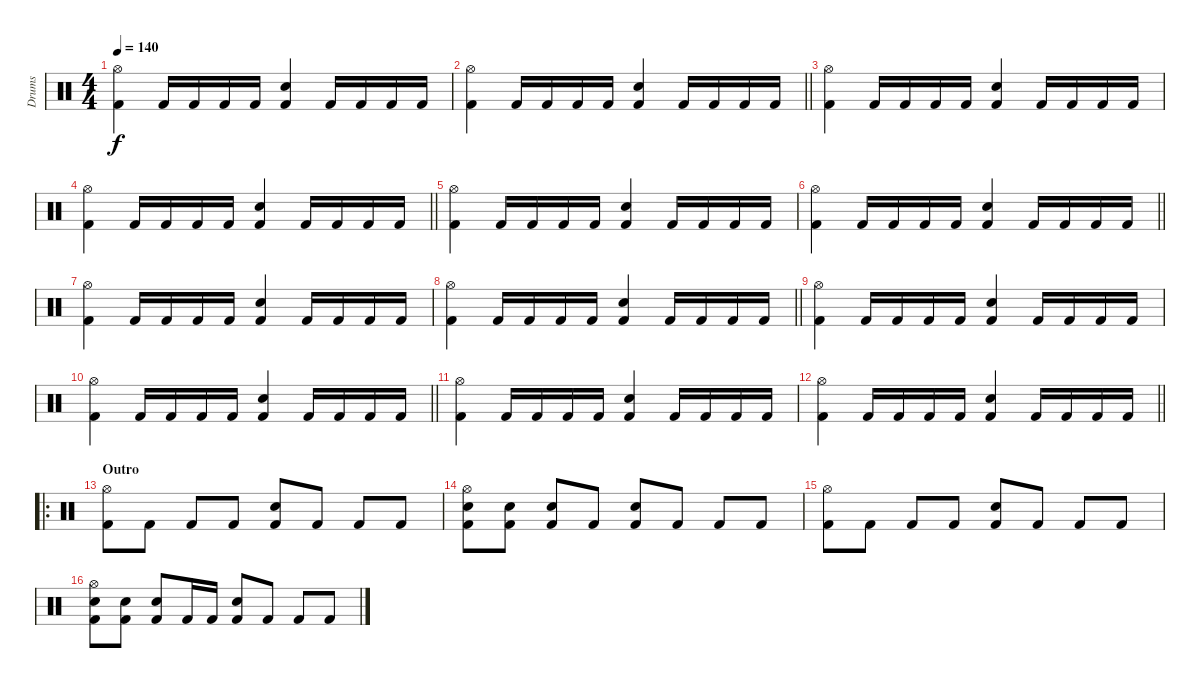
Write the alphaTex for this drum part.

\track ("Drums" "Drums") {instrument percussion}
\staff {score}
\articulation defaults
\ts (4 4)
\tempo 140
\clef neutral
\ks c
("Hi-Hat (open)" "Kick (hit) 2").4{dy f} "Kick (hit) 2".16 "Kick (hit) 2".16 "Kick (hit) 2".16 "Kick (hit) 2".16 ("Snare (hit) 2" "Kick (hit) 2").4 "Kick (hit) 2".16 "Kick (hit) 2".16 "Kick (hit) 2".16 "Kick (hit) 2".16 |
\barLineRight lightlight
("Hi-Hat (open)" "Kick (hit) 2").4 "Kick (hit) 2".16 "Kick (hit) 2".16 "Kick (hit) 2".16 "Kick (hit) 2".16 ("Snare (hit) 2" "Kick (hit) 2").4 "Kick (hit) 2".16 "Kick (hit) 2".16 "Kick (hit) 2".16 "Kick (hit) 2".16 |
("Hi-Hat (open)" "Kick (hit) 2").4 "Kick (hit) 2".16 "Kick (hit) 2".16 "Kick (hit) 2".16 "Kick (hit) 2".16 ("Snare (hit) 2" "Kick (hit) 2").4 "Kick (hit) 2".16 "Kick (hit) 2".16 "Kick (hit) 2".16 "Kick (hit) 2".16 |
\barLineRight lightlight
("Hi-Hat (open)" "Kick (hit) 2").4 "Kick (hit) 2".16 "Kick (hit) 2".16 "Kick (hit) 2".16 "Kick (hit) 2".16 ("Snare (hit) 2" "Kick (hit) 2").4 "Kick (hit) 2".16 "Kick (hit) 2".16 "Kick (hit) 2".16 "Kick (hit) 2".16 |
("Hi-Hat (open)" "Kick (hit) 2").4 "Kick (hit) 2".16 "Kick (hit) 2".16 "Kick (hit) 2".16 "Kick (hit) 2".16 ("Snare (hit) 2" "Kick (hit) 2").4 "Kick (hit) 2".16 "Kick (hit) 2".16 "Kick (hit) 2".16 "Kick (hit) 2".16 |
\barLineRight lightlight
("Hi-Hat (open)" "Kick (hit) 2").4 "Kick (hit) 2".16 "Kick (hit) 2".16 "Kick (hit) 2".16 "Kick (hit) 2".16 ("Snare (hit) 2" "Kick (hit) 2").4 "Kick (hit) 2".16 "Kick (hit) 2".16 "Kick (hit) 2".16 "Kick (hit) 2".16 |
("Hi-Hat (open)" "Kick (hit) 2").4 "Kick (hit) 2".16 "Kick (hit) 2".16 "Kick (hit) 2".16 "Kick (hit) 2".16 ("Snare (hit) 2" "Kick (hit) 2").4 "Kick (hit) 2".16 "Kick (hit) 2".16 "Kick (hit) 2".16 "Kick (hit) 2".16 |
\barLineRight lightlight
("Hi-Hat (open)" "Kick (hit) 2").4 "Kick (hit) 2".16 "Kick (hit) 2".16 "Kick (hit) 2".16 "Kick (hit) 2".16 ("Snare (hit) 2" "Kick (hit) 2").4 "Kick (hit) 2".16 "Kick (hit) 2".16 "Kick (hit) 2".16 "Kick (hit) 2".16 |
("Hi-Hat (open)" "Kick (hit) 2").4 "Kick (hit) 2".16 "Kick (hit) 2".16 "Kick (hit) 2".16 "Kick (hit) 2".16 ("Snare (hit) 2" "Kick (hit) 2").4 "Kick (hit) 2".16 "Kick (hit) 2".16 "Kick (hit) 2".16 "Kick (hit) 2".16 |
\barLineRight lightlight
("Hi-Hat (open)" "Kick (hit) 2").4 "Kick (hit) 2".16 "Kick (hit) 2".16 "Kick (hit) 2".16 "Kick (hit) 2".16 ("Snare (hit) 2" "Kick (hit) 2").4 "Kick (hit) 2".16 "Kick (hit) 2".16 "Kick (hit) 2".16 "Kick (hit) 2".16 |
("Hi-Hat (open)" "Kick (hit) 2").4 "Kick (hit) 2".16 "Kick (hit) 2".16 "Kick (hit) 2".16 "Kick (hit) 2".16 ("Snare (hit) 2" "Kick (hit) 2").4 "Kick (hit) 2".16 "Kick (hit) 2".16 "Kick (hit) 2".16 "Kick (hit) 2".16 |
\barLineRight lightlight
("Hi-Hat (open)" "Kick (hit) 2").4 "Kick (hit) 2".16 "Kick (hit) 2".16 "Kick (hit) 2".16 "Kick (hit) 2".16 ("Snare (hit) 2" "Kick (hit) 2").4 "Kick (hit) 2".16 "Kick (hit) 2".16 "Kick (hit) 2".16 "Kick (hit) 2".16 |
\ro
\section ("" "Outro")
("Hi-Hat (open)" "Kick (hit) 2").8 "Kick (hit) 2".8 "Kick (hit) 2".8 "Kick (hit) 2".8 ("Snare (hit) 2" "Kick (hit) 2").8 "Kick (hit) 2".8 "Kick (hit) 2".8 "Kick (hit) 2".8 |
("Hi-Hat (open)" "Snare (hit) 2" "Kick (hit) 2").8 ("Snare (hit) 2" "Kick (hit) 2").8 ("Snare (hit) 2" "Kick (hit) 2").8 "Kick (hit) 2".8 ("Snare (hit) 2" "Kick (hit) 2").8 "Kick (hit) 2".8 "Kick (hit) 2".8 "Kick (hit) 2".8 |
("Hi-Hat (open)" "Kick (hit) 2").8 "Kick (hit) 2".8 "Kick (hit) 2".8 "Kick (hit) 2".8 ("Snare (hit) 2" "Kick (hit) 2").8 "Kick (hit) 2".8 "Kick (hit) 2".8 "Kick (hit) 2".8 |
("Hi-Hat (open)" "Snare (hit) 2" "Kick (hit) 2").8 ("Snare (hit) 2" "Kick (hit) 2").8 ("Snare (hit) 2" "Kick (hit) 2").8 "Kick (hit) 2".16 "Kick (hit) 2".16 ("Snare (hit) 2" "Kick (hit) 2").8 "Kick (hit) 2".8 "Kick (hit) 2".8 "Kick (hit) 2".8
